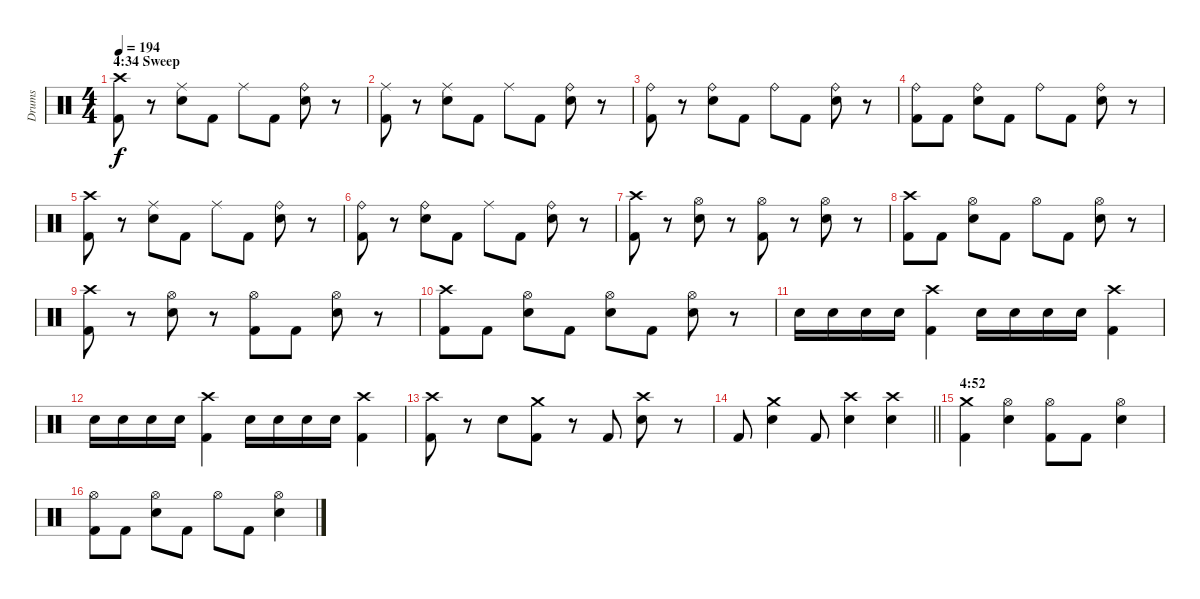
\track ("Drums" "Drums") {instrument percussion}
\staff {score}
\articulation defaults
\ts (4 4)
\section ("" "4:34 Sweep")
\tempo 194
\clef neutral
\ks c
("Crash high (hit)" "Kick (hit) 2").8{dy f} r.8 ("Ride (middle)" "Snare (hit) 2").8 "Kick (hit) 2".8 "Ride (middle)".8 "Kick (hit) 2".8 ("Ride (bell)" "Snare (hit) 2").8 r.8 |
("Ride (middle)" "Kick (hit) 2").8 r.8 ("Ride (middle)" "Snare (hit) 2").8 "Kick (hit) 2".8 "Ride (middle)".8 "Kick (hit) 2".8 ("Ride (bell)" "Snare (hit) 2").8 r.8 |
("Ride (bell)" "Kick (hit) 2").8 r.8 ("Ride (bell)" "Snare (hit) 2").8 "Kick (hit) 2".8 "Ride (bell)".8 "Kick (hit) 2".8 ("Ride (bell)" "Snare (hit) 2").8 r.8 |
("Ride (bell)" "Kick (hit) 2").8 "Kick (hit) 2".8 ("Ride (bell)" "Snare (hit) 2").8 "Kick (hit) 2".8 "Ride (bell)".8 "Kick (hit) 2".8 ("Ride (bell)" "Snare (hit) 2").8 r.8 |
("Crash high (hit)" "Kick (hit) 2").8 r.8 ("Ride (middle)" "Snare (hit) 2").8 "Kick (hit) 2".8 "Ride (middle)".8 "Kick (hit) 2".8 ("Ride (bell)" "Snare (hit) 2").8 r.8 |
("Ride (bell)" "Kick (hit) 2").8 r.8 ("Ride (bell)" "Snare (hit) 2").8 "Kick (hit) 2".8 "Ride (middle)".8 "Kick (hit) 2".8 ("Ride (bell)" "Snare (hit) 2").8 r.8 |
("Crash high (hit)" "Kick (hit) 2").8 r.8 ("Hi-Hat (open)" "Snare (hit) 2").8 r.8 ("Hi-Hat (open)" "Kick (hit) 2").8 r.8 ("Hi-Hat (open)" "Snare (hit) 2").8 r.8 |
("Crash high (hit)" "Kick (hit) 2").8 "Kick (hit) 2".8 ("Hi-Hat (open)" "Snare (hit) 2").8 "Kick (hit) 2".8 "Hi-Hat (open)".8 "Kick (hit) 2".8 ("Hi-Hat (open)" "Snare (hit) 2").8 r.8 |
("Crash high (hit)" "Kick (hit) 2").8 r.8 ("Hi-Hat (open)" "Snare (hit) 2").8 r.8 ("Hi-Hat (open)" "Kick (hit) 2").8 "Kick (hit) 2".8 ("Hi-Hat (open)" "Snare (hit) 2").8 r.8 |
("Crash high (hit)" "Kick (hit) 2").8 "Kick (hit) 2".8 ("Hi-Hat (open)" "Snare (hit) 2").8 "Kick (hit) 2".8 ("Hi-Hat (open)" "Snare (hit) 2").8 "Kick (hit) 2".8 ("Hi-Hat (open)" "Snare (hit) 2").8 r.8 |
"Snare (hit) 2".16 "Snare (hit) 2".16 "Snare (hit) 2".16 "Snare (hit) 2".16 ("Crash high (hit)" "Kick (hit) 2").4 "Snare (hit) 2".16 "Snare (hit) 2".16 "Snare (hit) 2".16 "Snare (hit) 2".16 ("Crash high (hit)" "Kick (hit) 2").4 |
"Snare (hit) 2".16 "Snare (hit) 2".16 "Snare (hit) 2".16 "Snare (hit) 2".16 ("Crash high (hit)" "Kick (hit) 2").4 "Snare (hit) 2".16 "Snare (hit) 2".16 "Snare (hit) 2".16 "Snare (hit) 2".16 ("Crash high (hit)" "Kick (hit) 2").4 |
("Crash high (hit)" "Kick (hit) 2").8 r.8 "Snare (hit) 2".8 ("Crash medium (hit)" "Kick (hit) 2").8 r.8 "Kick (hit) 2".8 ("Crash high (hit)" "Snare (hit) 2").8 r.8 |
\barLineRight lightlight "Kick (hit) 2".8
("Crash medium (hit)" "Snare (hit) 2").4 "Kick (hit) 2".8 ("Crash high (hit)" "Snare (hit) 2").4 ("Crash high (hit)" "Snare (hit) 2").4 |
\section ("" "4:52")
("Crash medium (hit)" "Kick (hit) 2").4 ("Hi-Hat (open)" "Snare (hit) 2").4 ("Hi-Hat (open)" "Kick (hit) 2").8 "Kick (hit) 2".8 ("Hi-Hat (open)" "Snare (hit) 2").4 |
("Hi-Hat (open)" "Kick (hit) 2").8 "Kick (hit) 2".8 ("Hi-Hat (open)" "Snare (hit) 2").8 "Kick (hit) 2".8 "Hi-Hat (open)".8 "Kick (hit) 2".8 ("Hi-Hat (open)" "Snare (hit) 2").4
